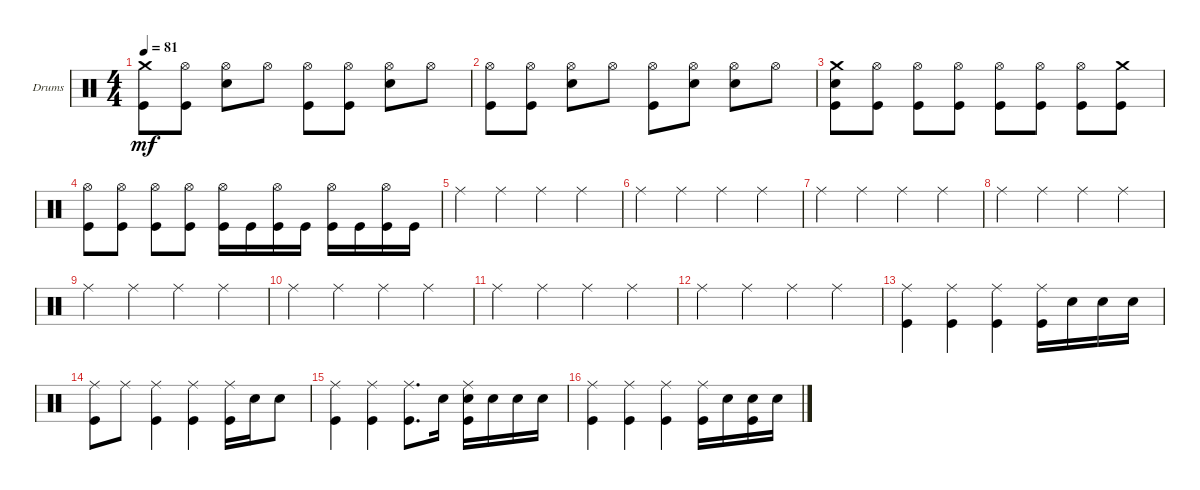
\bracketExtendMode groupsimilarinstruments
\firstSystemTrackNameOrientation horizontal
\otherSystemsTrackNameOrientation horizontal
\track ("Drumkit" "Drums") {instrument percussion}
\staff {score}
\articulation defaults
\ts (4 4)
\tempo 81
\clef neutral
\ks c
("Kick (hit)" "Crash medium (hit)").8{dy mf} ("Kick (hit)" "Hi-Hat (open)").8 ("Snare (hit) 2" "Hi-Hat (open)").8 "Hi-Hat (open)".8 ("Kick (hit)" "Hi-Hat (open)").8 ("Kick (hit)" "Hi-Hat (open)").8 ("Snare (hit) 2" "Hi-Hat (open)").8 "Hi-Hat (open)".8 |
("Kick (hit)" "Hi-Hat (open)").8 ("Kick (hit)" "Hi-Hat (open)").8 ("Snare (hit) 2" "Hi-Hat (open)").8 "Hi-Hat (open)".8 ("Kick (hit)" "Hi-Hat (open)").8 ("Snare (hit) 2" "Hi-Hat (open)").8 ("Snare (hit) 2" "Hi-Hat (open)").8 "Hi-Hat (open)".8 |
("Kick (hit)" "Snare (hit) 2" "Crash medium (hit)").8 ("Kick (hit)" "Hi-Hat (open)").8 ("Kick (hit)" "Hi-Hat (open)").8 ("Kick (hit)" "Hi-Hat (open)").8 ("Kick (hit)" "Hi-Hat (open)").8 ("Kick (hit)" "Hi-Hat (open)").8 ("Kick (hit)" "Hi-Hat (open)").8 ("Kick (hit)" "Crash medium (hit)").8 |
("Kick (hit)" "Hi-Hat (open)").8 ("Kick (hit)" "Hi-Hat (open)").8 ("Kick (hit)" "Hi-Hat (open)").8 ("Kick (hit)" "Hi-Hat (open)").8 ("Kick (hit)" "Hi-Hat (open)").16 "Kick (hit)".16 ("Kick (hit)" "Hi-Hat (open)").16 "Kick (hit)".16 ("Kick (hit)" "Hi-Hat (open)").16 "Kick (hit)".16 ("Kick (hit)" "Hi-Hat (open)").16 "Kick (hit)".16 |
"Ride (middle)".4 "Ride (middle)".4 "Ride (middle)".4 "Ride (middle)".4 |
"Ride (middle)".4 "Ride (middle)".4 "Ride (middle)".4 "Ride (middle)".4 |
"Ride (middle)".4 "Ride (middle)".4 "Ride (middle)".4 "Ride (middle)".4 |
"Ride (middle)".4 "Ride (middle)".4 "Ride (middle)".4 "Ride (middle)".4 |
"Ride (middle)".4 "Ride (middle)".4 "Ride (middle)".4 "Ride (middle)".4 |
"Ride (middle)".4 "Ride (middle)".4 "Ride (middle)".4 "Ride (middle)".4 |
"Ride (middle)".4 "Ride (middle)".4 "Ride (middle)".4 "Ride (middle)".4 |
"Ride (middle)".4 "Ride (middle)".4 "Ride (middle)".4 "Ride (middle)".4 |
("Kick (hit)" "Ride (middle)").4 ("Kick (hit)" "Ride (middle)").4 ("Kick (hit)" "Ride (middle)").4 ("Kick (hit)" "Ride (middle)").16 "Snare (hit) 2".16 "Snare (hit) 2".16 "Snare (hit) 2".16 |
("Kick (hit)" "Ride (middle)").8 "Ride (middle)".8 ("Kick (hit)" "Ride (middle)").4 ("Kick (hit)" "Ride (middle)").4 ("Kick (hit)" "Ride (middle)").16 "Snare (hit) 2".16 "Snare (hit) 2".8 |
("Kick (hit)" "Ride (middle)").4 ("Kick (hit)" "Ride (middle)").4 ("Kick (hit)" "Ride (middle)").8{d} "Snare (hit) 2".16 ("Kick (hit)" "Snare (hit) 2" "Ride (middle)").16 "Snare (hit) 2".16 "Snare (hit) 2".16 "Snare (hit) 2".16 |
("Kick (hit)" "Ride (middle)").4 ("Kick (hit)" "Ride (middle)").4 ("Kick (hit)" "Ride (middle)").4 ("Kick (hit)" "Ride (middle)").16 "Snare (hit) 2".16 ("Kick (hit)" "Snare (hit) 2").16 "Snare (hit) 2".16
